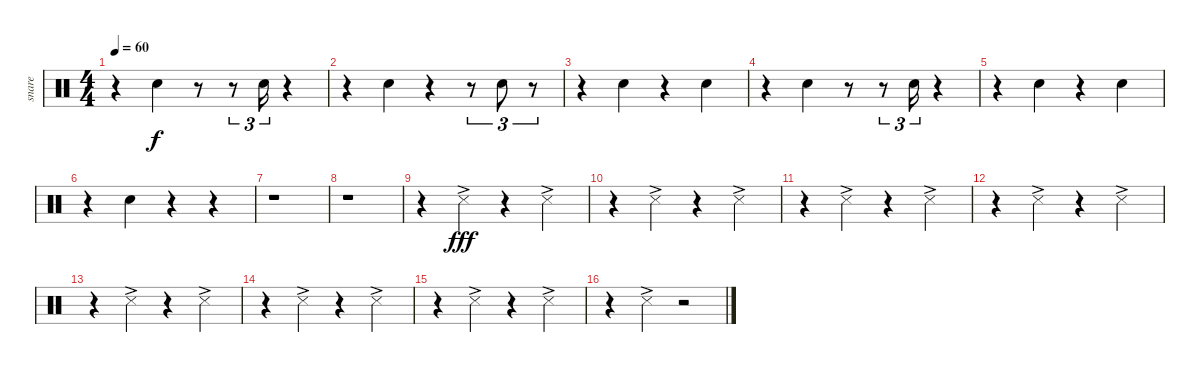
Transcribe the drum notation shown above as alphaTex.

\track ("snare" "snare") {instrument percussion}
\staff {score}
\articulation defaults
\ts (4 4)
\tempo 60
\clef neutral
\ks c
r.4{dy f} "Snare (hit) 2".4 r.8 r.8{tu (3 2)} "Snare (hit) 2".16{tu (3 2)} r.4 |
r.4 "Snare (hit) 2".4 r.4 r.8{tu (3 2)} "Snare (hit) 2".8{tu (3 2)} r.8{tu (3 2)} |
r.4 "Snare (hit) 2".4 r.4 "Snare (hit) 2".4 |
r.4 "Snare (hit) 2".4 r.8 r.8{tu (3 2)} "Snare (hit) 2".16{tu (3 2)} r.4 |
r.4 "Snare (hit) 2".4 r.4 "Snare (hit) 2".4 |
r.4 "Snare (hit) 2".4 r.4 r.4 |
r.1 |
r.1 |
r.4 "Snare (side stick) 3"{ac}.4{dy fff} r.4 "Snare (side stick) 3"{ac}.4 |
r.4 "Snare (side stick) 3"{ac}.4 r.4 "Snare (side stick) 3"{ac}.4 |
r.4 "Snare (side stick) 3"{ac}.4 r.4 "Snare (side stick) 3"{ac}.4 |
r.4 "Snare (side stick) 3"{ac}.4 r.4 "Snare (side stick) 3"{ac}.4 |
r.4 "Snare (side stick) 3"{ac}.4 r.4 "Snare (side stick) 3"{ac}.4 |
r.4 "Snare (side stick) 3"{ac}.4 r.4 "Snare (side stick) 3"{ac}.4 |
r.4 "Snare (side stick) 3"{ac}.4 r.4 "Snare (side stick) 3"{ac}.4 |
r.4 "Snare (side stick) 3"{ac}.4 r.2
